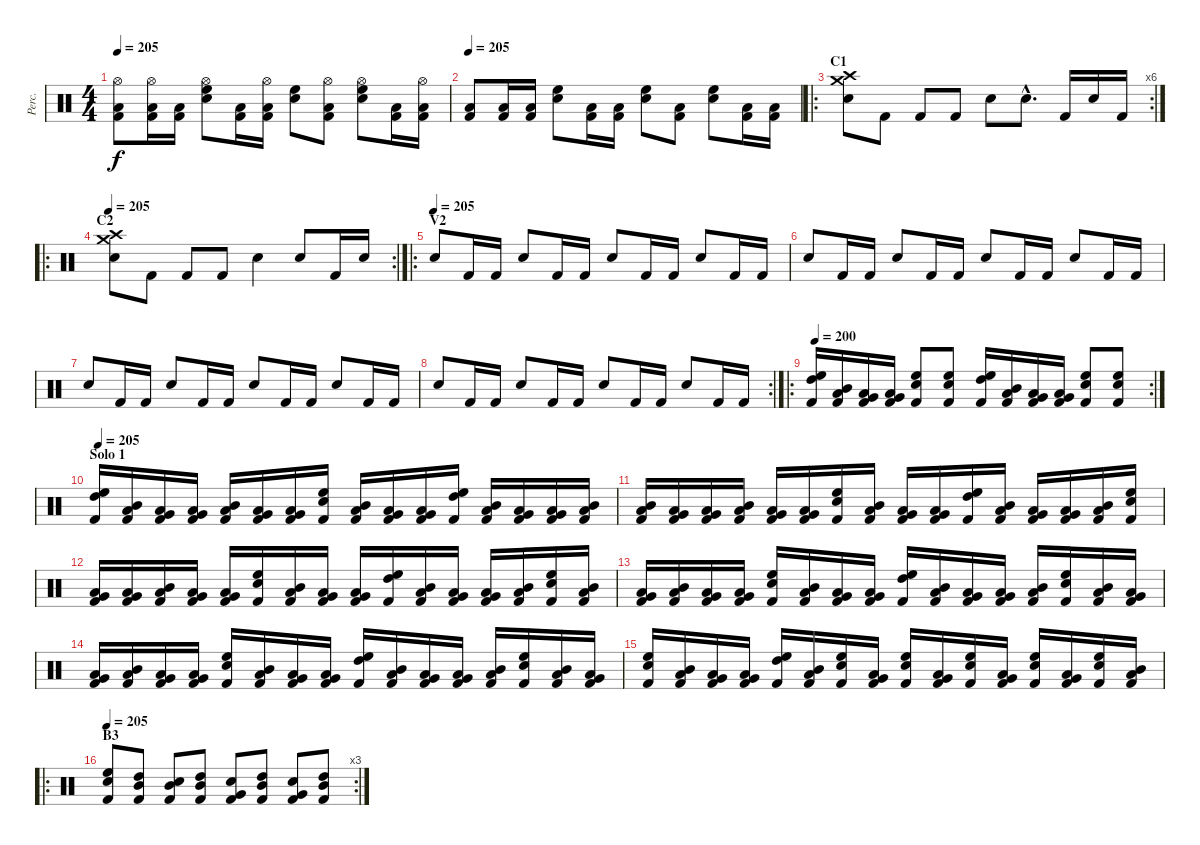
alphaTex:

\track ("Perc." "Perc.") {instrument percussion}
\staff {score}
\articulation defaults
\ts (4 4)
\tempo 205
\clef neutral
\ks c
("Hi-Hat (open)" "Low Tom (hit)" "Kick (hit) 2").8{dy f} ("Hi-Hat (open)" "Low Tom (hit)" "Kick (hit) 2").16 ("Low Tom (hit)" "Kick (hit) 2").16 ("Hi-Hat (open)" "High Floor Tom (hit)" "Snare (hit) 2").8 ("Low Tom (hit)" "Kick (hit) 2").16 ("Hi-Hat (open)" "Low Tom (hit)" "Kick (hit) 2").16 ("High Floor Tom (hit)" "Snare (hit) 2").8 ("Hi-Hat (open)" "Low Tom (hit)" "Kick (hit) 2").8 ("Hi-Hat (open)" "High Floor Tom (hit)" "Snare (hit) 2").8 ("Low Tom (hit)" "Kick (hit) 2").16 ("Hi-Hat (open)" "Low Tom (hit)" "Kick (hit) 2").16 |
\tempo 205
("Low Tom (hit)" "Kick (hit) 2").8 ("Low Tom (hit)" "Kick (hit) 2").16 ("Low Tom (hit)" "Kick (hit) 2").16 ("High Floor Tom (hit)" "Snare (hit) 2").8 ("Low Tom (hit)" "Kick (hit) 2").16 ("Low Tom (hit)" "Kick (hit) 2").16 ("High Floor Tom (hit)" "Snare (hit) 2").8 ("Low Tom (hit)" "Kick (hit) 2").8 ("High Floor Tom (hit)" "Snare (hit) 2").8 ("Low Tom (hit)" "Kick (hit) 2").16 ("Low Tom (hit)" "Kick (hit) 2").16 |
\ro
\rc 6
\section ("" "C1")
("Crash medium (hit)" "Crash high (hit)" "Snare (hit) 2").8 "Kick (hit) 2".8 "Kick (hit) 2".8 "Kick (hit) 2".8 "Snare (hit) 2".8 "Snare (hit) 2"{hac}.8{d} "Kick (hit) 2".16 "Snare (hit) 2".16 "Kick (hit) 2".16 |
\ro
\rc 2
\section ("" "C2")
\tempo 205
("Crash medium (hit)" "Crash high (hit)" "Snare (hit) 2").8 "Kick (hit) 2".8 "Kick (hit) 2".8 "Kick (hit) 2".8 "Snare (hit) 2".4 "Snare (hit) 2".8 "Kick (hit) 2".16 "Snare (hit) 2".16 |
\ro
\section ("" "V2")
\tempo (205)
"Snare (hit) 2".8 "Kick (hit) 2".16 "Kick (hit) 2".16 "Snare (hit) 2".8 "Kick (hit) 2".16 "Kick (hit) 2".16 "Snare (hit) 2".8 "Kick (hit) 2".16 "Kick (hit) 2".16 "Snare (hit) 2".8 "Kick (hit) 2".16 "Kick (hit) 2".16 |
"Snare (hit) 2".8 "Kick (hit) 2".16 "Kick (hit) 2".16 "Snare (hit) 2".8 "Kick (hit) 2".16 "Kick (hit) 2".16 "Snare (hit) 2".8 "Kick (hit) 2".16 "Kick (hit) 2".16 "Snare (hit) 2".8 "Kick (hit) 2".16 "Kick (hit) 2".16 |
"Snare (hit) 2".8 "Kick (hit) 2".16 "Kick (hit) 2".16 "Snare (hit) 2".8 "Kick (hit) 2".16 "Kick (hit) 2".16 "Snare (hit) 2".8 "Kick (hit) 2".16 "Kick (hit) 2".16 "Snare (hit) 2".8 "Kick (hit) 2".16 "Kick (hit) 2".16 |
\rc 2 "Snare (hit) 2".8 "Kick (hit) 2".16 "Kick (hit) 2".16 "Snare (hit) 2".8 "Kick (hit) 2".16 "Kick (hit) 2".16 "Snare (hit) 2".8 "Kick (hit) 2".16 "Kick (hit) 2".16 "Snare (hit) 2".8 "Kick (hit) 2".16 "Kick (hit) 2".16
|
\ro
\rc 2
\tempo 200
("Kick (hit) 2" "High Floor Tom (hit)" "High Tom (hit)").16 ("Kick (hit) 2" "Mid Tom (hit)" "Low Tom (hit)").16 ("Kick (hit) 2" "Low Tom (hit)" "Very Low Tom (hit)").16 ("Kick (hit) 2" "Very Low Tom (hit)" "Low Floor Tom (hit)").16 ("Kick (hit) 2" "High Floor Tom (hit)" "Snare (hit) 2").8 ("Kick (hit) 2" "High Floor Tom (hit)" "Snare (hit) 2").8 ("Kick (hit) 2" "High Floor Tom (hit)" "High Tom (hit)").16 ("Kick (hit) 2" "Mid Tom (hit)" "Low Tom (hit)").16 ("Kick (hit) 2" "Low Tom (hit)" "Very Low Tom (hit)").16 ("Kick (hit) 2" "Very Low Tom (hit)" "Low Floor Tom (hit)").16 ("Kick (hit) 2" "High Floor Tom (hit)" "Snare (hit) 2").8 ("Kick (hit) 2" "High Floor Tom (hit)" "Snare (hit) 2").8 |
\section ("" "Solo 1")
\tempo 205
("Kick (hit) 2" "High Floor Tom (hit)" "High Tom (hit)").16 ("Kick (hit) 2" "Mid Tom (hit)" "Low Tom (hit)").16 ("Kick (hit) 2" "Low Tom (hit)" "Very Low Tom (hit)").16 ("Kick (hit) 2" "Very Low Tom (hit)" "Low Floor Tom (hit)").16 ("Kick (hit) 2" "Mid Tom (hit)" "Low Tom (hit)").16 ("Kick (hit) 2" "Low Tom (hit)" "Very Low Tom (hit)").16 ("Kick (hit) 2" "Very Low Tom (hit)" "Low Floor Tom (hit)").16 ("Kick (hit) 2" "High Floor Tom (hit)" "Snare (hit) 2").16 ("Kick (hit) 2" "Mid Tom (hit)" "Low Tom (hit)").16 ("Kick (hit) 2" "Low Tom (hit)" "Very Low Tom (hit)").16 ("Kick (hit) 2" "Very Low Tom (hit)" "Low Floor Tom (hit)").16 ("Kick (hit) 2" "High Floor Tom (hit)" "High Tom (hit)").16 ("Kick (hit) 2" "Mid Tom (hit)" "Low Tom (hit)").16 ("Kick (hit) 2" "Low Tom (hit)" "Very Low Tom (hit)").16 ("Kick (hit) 2" "Very Low Tom (hit)" "Low Floor Tom (hit)").16 ("Kick (hit) 2" "Mid Tom (hit)" "Low Tom (hit)").16 |
("Kick (hit) 2" "Mid Tom (hit)" "Low Tom (hit)").16 ("Kick (hit) 2" "Low Tom (hit)" "Very Low Tom (hit)").16 ("Kick (hit) 2" "Very Low Tom (hit)" "Low Floor Tom (hit)").16 ("Kick (hit) 2" "Mid Tom (hit)" "Low Tom (hit)").16 ("Kick (hit) 2" "Low Tom (hit)" "Very Low Tom (hit)").16 ("Kick (hit) 2" "Very Low Tom (hit)" "Low Floor Tom (hit)").16 ("Kick (hit) 2" "High Floor Tom (hit)" "Snare (hit) 2").16 ("Kick (hit) 2" "Mid Tom (hit)" "Low Tom (hit)").16 ("Kick (hit) 2" "Low Tom (hit)" "Very Low Tom (hit)").16 ("Kick (hit) 2" "Very Low Tom (hit)" "Low Floor Tom (hit)").16 ("Kick (hit) 2" "High Floor Tom (hit)" "High Tom (hit)").16 ("Kick (hit) 2" "Mid Tom (hit)" "Low Tom (hit)").16 ("Kick (hit) 2" "Low Tom (hit)" "Very Low Tom (hit)").16 ("Kick (hit) 2" "Very Low Tom (hit)" "Low Floor Tom (hit)").16 ("Kick (hit) 2" "Mid Tom (hit)" "Low Tom (hit)").16 ("Kick (hit) 2" "High Floor Tom (hit)" "Snare (hit) 2").16 |
("Kick (hit) 2" "Low Tom (hit)" "Very Low Tom (hit)").16 ("Kick (hit) 2" "Very Low Tom (hit)" "Low Floor Tom (hit)").16 ("Kick (hit) 2" "Mid Tom (hit)" "Low Tom (hit)").16 ("Kick (hit) 2" "Low Tom (hit)" "Very Low Tom (hit)").16 ("Kick (hit) 2" "Very Low Tom (hit)" "Low Floor Tom (hit)").16 ("Kick (hit) 2" "High Floor Tom (hit)" "Snare (hit) 2").16 ("Kick (hit) 2" "Mid Tom (hit)" "Low Tom (hit)").16 ("Kick (hit) 2" "Low Tom (hit)" "Very Low Tom (hit)").16 ("Kick (hit) 2" "Very Low Tom (hit)" "Low Floor Tom (hit)").16 ("Kick (hit) 2" "High Floor Tom (hit)" "High Tom (hit)").16 ("Kick (hit) 2" "Mid Tom (hit)" "Low Tom (hit)").16 ("Kick (hit) 2" "Low Tom (hit)" "Very Low Tom (hit)").16 ("Kick (hit) 2" "Very Low Tom (hit)" "Low Floor Tom (hit)").16 ("Kick (hit) 2" "Mid Tom (hit)" "Low Tom (hit)").16 ("Kick (hit) 2" "High Floor Tom (hit)" "Snare (hit) 2").16 ("Kick (hit) 2" "Mid Tom (hit)" "Low Tom (hit)").16 |
("Kick (hit) 2" "Very Low Tom (hit)" "Low Floor Tom (hit)").16 ("Kick (hit) 2" "Mid Tom (hit)" "Low Tom (hit)").16 ("Kick (hit) 2" "Low Tom (hit)" "Very Low Tom (hit)").16 ("Kick (hit) 2" "Very Low Tom (hit)" "Low Floor Tom (hit)").16 ("Kick (hit) 2" "High Floor Tom (hit)" "Snare (hit) 2").16 ("Kick (hit) 2" "Mid Tom (hit)" "Low Tom (hit)").16 ("Kick (hit) 2" "Low Tom (hit)" "Very Low Tom (hit)").16 ("Kick (hit) 2" "Very Low Tom (hit)" "Low Floor Tom (hit)").16 ("Kick (hit) 2" "High Floor Tom (hit)" "High Tom (hit)").16 ("Kick (hit) 2" "Mid Tom (hit)" "Low Tom (hit)").16 ("Kick (hit) 2" "Low Tom (hit)" "Very Low Tom (hit)").16 ("Kick (hit) 2" "Very Low Tom (hit)" "Low Floor Tom (hit)").16 ("Kick (hit) 2" "Mid Tom (hit)" "Low Tom (hit)").16 ("Kick (hit) 2" "High Floor Tom (hit)" "Snare (hit) 2").16 ("Kick (hit) 2" "Mid Tom (hit)" "Low Tom (hit)").16 ("Kick (hit) 2" "Low Tom (hit)" "Very Low Tom (hit)").16 |
("Kick (hit) 2" "Very Low Tom (hit)" "Low Floor Tom (hit)").16 ("Kick (hit) 2" "Mid Tom (hit)" "Low Tom (hit)").16 ("Kick (hit) 2" "Low Tom (hit)" "Very Low Tom (hit)").16 ("Kick (hit) 2" "Very Low Tom (hit)" "Low Floor Tom (hit)").16 ("Kick (hit) 2" "High Floor Tom (hit)" "Snare (hit) 2").16 ("Kick (hit) 2" "Mid Tom (hit)" "Low Tom (hit)").16 ("Kick (hit) 2" "Low Tom (hit)" "Very Low Tom (hit)").16 ("Kick (hit) 2" "Very Low Tom (hit)" "Low Floor Tom (hit)").16 ("Kick (hit) 2" "High Floor Tom (hit)" "High Tom (hit)").16 ("Kick (hit) 2" "Mid Tom (hit)" "Low Tom (hit)").16 ("Kick (hit) 2" "Low Tom (hit)" "Very Low Tom (hit)").16 ("Kick (hit) 2" "Very Low Tom (hit)" "Low Floor Tom (hit)").16 ("Kick (hit) 2" "Mid Tom (hit)" "Low Tom (hit)").16 ("Kick (hit) 2" "High Floor Tom (hit)" "Snare (hit) 2").16 ("Kick (hit) 2" "Mid Tom (hit)" "Low Tom (hit)").16 ("Kick (hit) 2" "Low Tom (hit)" "Very Low Tom (hit)").16 |
("Kick (hit) 2" "High Floor Tom (hit)" "Snare (hit) 2").16 ("Kick (hit) 2" "Mid Tom (hit)" "Low Tom (hit)").16 ("Kick (hit) 2" "Low Tom (hit)" "Very Low Tom (hit)").16 ("Kick (hit) 2" "Very Low Tom (hit)" "Low Floor Tom (hit)").16 ("Kick (hit) 2" "High Floor Tom (hit)" "High Tom (hit)").16 ("Kick (hit) 2" "Mid Tom (hit)" "Low Tom (hit)").16 ("Kick (hit) 2" "High Floor Tom (hit)" "Snare (hit) 2").16 ("Kick (hit) 2" "Very Low Tom (hit)" "Low Floor Tom (hit)").16 ("Kick (hit) 2" "High Floor Tom (hit)" "Snare (hit) 2").16 ("Kick (hit) 2" "Low Tom (hit)" "Very Low Tom (hit)").16 ("Kick (hit) 2" "High Floor Tom (hit)" "Snare (hit) 2").16 ("Kick (hit) 2" "Low Tom (hit)" "Very Low Tom (hit)").16 ("Kick (hit) 2" "High Floor Tom (hit)" "Snare (hit) 2").16 ("Kick (hit) 2" "Very Low Tom (hit)" "Low Floor Tom (hit)").16 ("Kick (hit) 2" "High Floor Tom (hit)" "Snare (hit) 2").16 ("Kick (hit) 2" "Mid Tom (hit)" "Low Tom (hit)").16 |
\ro
\rc 3
\section ("" "B3")
\tempo 205
("Kick (hit) 2" "High Floor Tom (hit)" "Snare (hit) 2").8 ("Kick (hit) 2" "High Tom (hit)" "Mid Tom (hit)").8 ("Kick (hit) 2" "Mid Tom (hit)" "Snare (hit) 2").8 ("Kick (hit) 2" "High Tom (hit)" "Mid Tom (hit)").8 ("Kick (hit) 2" "Very Low Tom (hit)" "Snare (hit) 2").8 ("Kick (hit) 2" "High Tom (hit)" "Mid Tom (hit)").8 ("Kick (hit) 2" "Very Low Tom (hit)" "Snare (hit) 2").8 ("Kick (hit) 2" "High Tom (hit)" "Mid Tom (hit)").8
